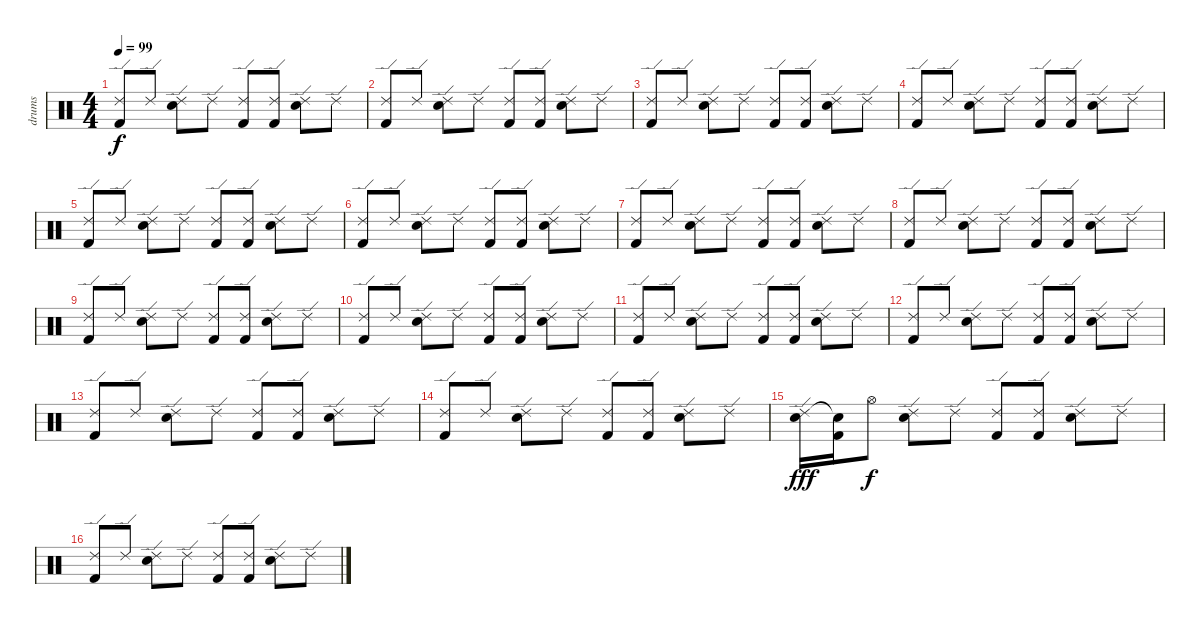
\track ("drums" "drums") {instrument percussion}
\staff {score}
\articulation defaults
\ts (4 4)
\tempo 99
\clef neutral
\ks c
("Ride (edge) 2" "Kick (hit) 2").8{dy f} "Ride (edge) 2".8 ("Ride (edge) 2" "Snare (hit) 2").8 "Ride (edge) 2".8 ("Ride (edge) 2" "Kick (hit) 2").8 ("Ride (edge) 2" "Kick (hit) 2").8 ("Ride (edge) 2" "Snare (hit) 2").8 "Ride (edge) 2".8 |
("Ride (edge) 2" "Kick (hit) 2").8 "Ride (edge) 2".8 ("Ride (edge) 2" "Snare (hit) 2").8 "Ride (edge) 2".8 ("Ride (edge) 2" "Kick (hit) 2").8 ("Ride (edge) 2" "Kick (hit) 2").8 ("Ride (edge) 2" "Snare (hit) 2").8 "Ride (edge) 2".8 |
("Ride (edge) 2" "Kick (hit) 2").8 "Ride (edge) 2".8 ("Ride (edge) 2" "Snare (hit) 2").8 "Ride (edge) 2".8 ("Ride (edge) 2" "Kick (hit) 2").8 ("Ride (edge) 2" "Kick (hit) 2").8 ("Ride (edge) 2" "Snare (hit) 2").8 "Ride (edge) 2".8 |
("Ride (edge) 2" "Kick (hit) 2").8 "Ride (edge) 2".8 ("Ride (edge) 2" "Snare (hit) 2").8 "Ride (edge) 2".8 ("Ride (edge) 2" "Kick (hit) 2").8 ("Ride (edge) 2" "Kick (hit) 2").8 ("Ride (edge) 2" "Snare (hit) 2").8 "Ride (edge) 2".8 |
("Ride (edge) 2" "Kick (hit) 2").8 "Ride (edge) 2".8 ("Ride (edge) 2" "Snare (hit) 2").8 "Ride (edge) 2".8 ("Ride (edge) 2" "Kick (hit) 2").8 ("Ride (edge) 2" "Kick (hit) 2").8 ("Ride (edge) 2" "Snare (hit) 2").8 "Ride (edge) 2".8 |
("Ride (edge) 2" "Kick (hit) 2").8 "Ride (edge) 2".8 ("Ride (edge) 2" "Snare (hit) 2").8 "Ride (edge) 2".8 ("Ride (edge) 2" "Kick (hit) 2").8 ("Ride (edge) 2" "Kick (hit) 2").8 ("Ride (edge) 2" "Snare (hit) 2").8 "Ride (edge) 2".8 |
("Ride (edge) 2" "Kick (hit) 2").8 "Ride (edge) 2".8 ("Ride (edge) 2" "Snare (hit) 2").8 "Ride (edge) 2".8 ("Ride (edge) 2" "Kick (hit) 2").8 ("Ride (edge) 2" "Kick (hit) 2").8 ("Ride (edge) 2" "Snare (hit) 2").8 "Ride (edge) 2".8 |
("Ride (edge) 2" "Kick (hit) 2").8 "Ride (edge) 2".8 ("Ride (edge) 2" "Snare (hit) 2").8 "Ride (edge) 2".8 ("Ride (edge) 2" "Kick (hit) 2").8 ("Ride (edge) 2" "Kick (hit) 2").8 ("Ride (edge) 2" "Snare (hit) 2").8 "Ride (edge) 2".8 |
("Ride (edge) 2" "Kick (hit) 2").8 "Ride (edge) 2".8 ("Ride (edge) 2" "Snare (hit) 2").8 "Ride (edge) 2".8 ("Ride (edge) 2" "Kick (hit) 2").8 ("Ride (edge) 2" "Kick (hit) 2").8 ("Ride (edge) 2" "Snare (hit) 2").8 "Ride (edge) 2".8 |
("Ride (edge) 2" "Kick (hit) 2").8 "Ride (edge) 2".8 ("Ride (edge) 2" "Snare (hit) 2").8 "Ride (edge) 2".8 ("Ride (edge) 2" "Kick (hit) 2").8 ("Ride (edge) 2" "Kick (hit) 2").8 ("Ride (edge) 2" "Snare (hit) 2").8 "Ride (edge) 2".8 |
("Ride (edge) 2" "Kick (hit) 2").8 "Ride (edge) 2".8 ("Ride (edge) 2" "Snare (hit) 2").8 "Ride (edge) 2".8 ("Ride (edge) 2" "Kick (hit) 2").8 ("Ride (edge) 2" "Kick (hit) 2").8 ("Ride (edge) 2" "Snare (hit) 2").8 "Ride (edge) 2".8 |
("Ride (edge) 2" "Kick (hit) 2").8 "Ride (edge) 2".8 ("Ride (edge) 2" "Snare (hit) 2").8 "Ride (edge) 2".8 ("Ride (edge) 2" "Kick (hit) 2").8 ("Ride (edge) 2" "Kick (hit) 2").8 ("Ride (edge) 2" "Snare (hit) 2").8 "Ride (edge) 2".8 |
("Ride (edge) 2" "Kick (hit) 2").8 "Ride (edge) 2".8 ("Ride (edge) 2" "Snare (hit) 2").8 "Ride (edge) 2".8 ("Ride (edge) 2" "Kick (hit) 2").8 ("Ride (edge) 2" "Kick (hit) 2").8 ("Ride (edge) 2" "Snare (hit) 2").8 "Ride (edge) 2".8 |
("Ride (edge) 2" "Kick (hit) 2").8 "Ride (edge) 2".8 ("Ride (edge) 2" "Snare (hit) 2").8 "Ride (edge) 2".8 ("Ride (edge) 2" "Kick (hit) 2").8 ("Ride (edge) 2" "Kick (hit) 2").8 ("Ride (edge) 2" "Snare (hit) 2").8 "Ride (edge) 2".8 |
("Ride (edge) 2" "Snare (hit) 2").16{dy fff} ("Snare (hit)"{t} "Kick (hit) 2").16 "Hi-Hat (open)".8{dy f} ("Ride (edge) 2" "Snare (hit) 2").8 "Ride (edge) 2".8 ("Ride (edge) 2" "Kick (hit) 2").8 ("Ride (edge) 2" "Kick (hit) 2").8 ("Ride (edge) 2" "Snare (hit) 2").8 "Ride (edge) 2".8 |
("Ride (edge) 2" "Kick (hit) 2").8 "Ride (edge) 2".8 ("Ride (edge) 2" "Snare (hit) 2").8 "Ride (edge) 2".8 ("Ride (edge) 2" "Kick (hit) 2").8 ("Ride (edge) 2" "Kick (hit) 2").8 ("Ride (edge) 2" "Snare (hit) 2").8 "Ride (edge) 2".8
